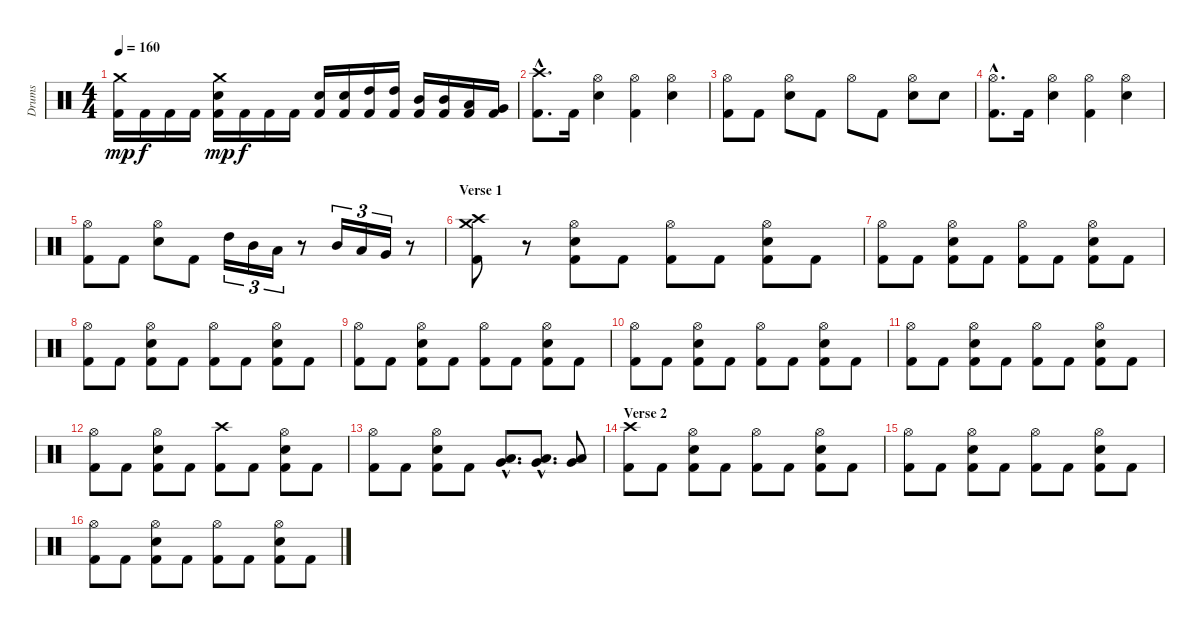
\track ("Drums" "Drums") {instrument percussion}
\staff {score}
\articulation defaults
\ts (4 4)
\tempo 160
\clef neutral
\ks c
("Crash medium (hit)" "Kick (hit) 2").16{dy mp} "Kick (hit) 2".16{dy f} "Kick (hit) 2".16 "Kick (hit) 2".16 ("Crash medium (hit)" "Electric Snare (hit)" "Kick (hit) 2").16{dy mp} "Kick (hit) 2".16{dy f} "Kick (hit) 2".16 "Kick (hit) 2".16 ("Electric Snare (hit)" "Kick (hit) 2").16 ("Electric Snare (hit)" "Kick (hit) 2").16 ("High Tom (hit)" "Kick (hit) 2").16 ("High Tom (hit)" "Kick (hit) 2").16 ("Mid Tom (hit)" "Kick (hit) 2").16 ("Mid Tom (hit)" "Kick (hit) 2").16 ("Low Tom (hit)" "Kick (hit) 2").16 ("Very Low Tom (hit)" "Kick (hit) 2").16 |
("Crash high (hit)"{hac} "Kick (hit) 2"{hac}).8{d} "Kick (hit) 2".16 ("Hi-Hat (open)" "Electric Snare (hit)").4 ("Hi-Hat (open)" "Kick (hit) 2").4 ("Hi-Hat (open)" "Electric Snare (hit)").4 |
("Hi-Hat (open)" "Kick (hit) 2").8 "Kick (hit) 2".8 ("Hi-Hat (open)" "Electric Snare (hit)").8 "Kick (hit) 2".8 "Hi-Hat (open)".8 "Kick (hit) 2".8 ("Hi-Hat (open)" "Electric Snare (hit)").8 "Electric Snare (hit)".8 |
("Hi-Hat (open)"{hac} "Kick (hit) 2"{hac}).8{d} "Kick (hit) 2".16 ("Hi-Hat (open)" "Electric Snare (hit)").4 ("Hi-Hat (open)" "Kick (hit) 2").4 ("Hi-Hat (open)" "Electric Snare (hit)").4 |
("Hi-Hat (open)" "Kick (hit) 2").8 "Kick (hit) 2".8 ("Hi-Hat (open)" "Electric Snare (hit)").8 "Kick (hit) 2".8 "High Tom (hit)".16{tu (3 2)} "Mid Tom (hit)".16{tu (3 2)} "Low Tom (hit)".16{tu (3 2)} r.8 "Mid Tom (hit)".16{tu (3 2)} "Low Tom (hit)".16{tu (3 2)} "Very Low Tom (hit)".16{tu (3 2)} r.8 |
\section ("" "Verse 1")
("Crash high (hit)" "Crash medium (hit)" "Kick (hit) 2").8 r.8 ("Hi-Hat (open)" "Electric Snare (hit)" "Kick (hit) 2").8 "Kick (hit) 2".8 ("Hi-Hat (open)" "Kick (hit) 2").8 "Kick (hit) 2".8 ("Hi-Hat (open)" "Electric Snare (hit)" "Kick (hit) 2").8 "Kick (hit) 2".8 |
("Hi-Hat (open)" "Kick (hit) 2").8 "Kick (hit) 2".8 ("Hi-Hat (open)" "Electric Snare (hit)" "Kick (hit) 2").8 "Kick (hit) 2".8 ("Hi-Hat (open)" "Kick (hit) 2").8 "Kick (hit) 2".8 ("Hi-Hat (open)" "Electric Snare (hit)" "Kick (hit) 2").8 "Kick (hit) 2".8 |
("Hi-Hat (open)" "Kick (hit) 2").8 "Kick (hit) 2".8 ("Hi-Hat (open)" "Electric Snare (hit)" "Kick (hit) 2").8 "Kick (hit) 2".8 ("Hi-Hat (open)" "Kick (hit) 2").8 "Kick (hit) 2".8 ("Hi-Hat (open)" "Electric Snare (hit)" "Kick (hit) 2").8 "Kick (hit) 2".8 |
("Hi-Hat (open)" "Kick (hit) 2").8 "Kick (hit) 2".8 ("Hi-Hat (open)" "Electric Snare (hit)" "Kick (hit) 2").8 "Kick (hit) 2".8 ("Hi-Hat (open)" "Kick (hit) 2").8 "Kick (hit) 2".8 ("Hi-Hat (open)" "Electric Snare (hit)" "Kick (hit) 2").8 "Kick (hit) 2".8 |
("Hi-Hat (open)" "Kick (hit) 2").8 "Kick (hit) 2".8 ("Hi-Hat (open)" "Electric Snare (hit)" "Kick (hit) 2").8 "Kick (hit) 2".8 ("Hi-Hat (open)" "Kick (hit) 2").8 "Kick (hit) 2".8 ("Hi-Hat (open)" "Electric Snare (hit)" "Kick (hit) 2").8 "Kick (hit) 2".8 |
("Hi-Hat (open)" "Kick (hit) 2").8 "Kick (hit) 2".8 ("Hi-Hat (open)" "Electric Snare (hit)" "Kick (hit) 2").8 "Kick (hit) 2".8 ("Hi-Hat (open)" "Kick (hit) 2").8 "Kick (hit) 2".8 ("Hi-Hat (open)" "Electric Snare (hit)" "Kick (hit) 2").8 "Kick (hit) 2".8 |
("Hi-Hat (open)" "Kick (hit) 2").8 "Kick (hit) 2".8 ("Hi-Hat (open)" "Electric Snare (hit)" "Kick (hit) 2").8 "Kick (hit) 2".8 ("Crash high (hit)" "Kick (hit) 2").8 "Kick (hit) 2".8 ("Hi-Hat (open)" "Electric Snare (hit)" "Kick (hit) 2").8 "Kick (hit) 2".8 |
("Hi-Hat (open)" "Kick (hit) 2").8 "Kick (hit) 2".8 ("Hi-Hat (open)" "Electric Snare (hit)" "Kick (hit) 2").8 "Kick (hit) 2".8 ("Low Tom (hit)"{hac} "Very Low Tom (hit)"{hac}).8{d} ("Low Tom (hit)"{hac} "Very Low Tom (hit)"{hac}).8{d} ("Low Tom (hit)" "Very Low Tom (hit)").8 |
\section ("" "Verse 2")
("Crash high (hit)" "Kick (hit) 2").8 "Kick (hit) 2".8 ("Hi-Hat (open)" "Electric Snare (hit)" "Kick (hit) 2").8 "Kick (hit) 2".8 ("Hi-Hat (open)" "Kick (hit) 2").8 "Kick (hit) 2".8 ("Hi-Hat (open)" "Electric Snare (hit)" "Kick (hit) 2").8 "Kick (hit) 2".8 |
("Hi-Hat (open)" "Kick (hit) 2").8 "Kick (hit) 2".8 ("Hi-Hat (open)" "Electric Snare (hit)" "Kick (hit) 2").8 "Kick (hit) 2".8 ("Hi-Hat (open)" "Kick (hit) 2").8 "Kick (hit) 2".8 ("Hi-Hat (open)" "Electric Snare (hit)" "Kick (hit) 2").8 "Kick (hit) 2".8 |
("Hi-Hat (open)" "Kick (hit) 2").8 "Kick (hit) 2".8 ("Hi-Hat (open)" "Electric Snare (hit)" "Kick (hit) 2").8 "Kick (hit) 2".8 ("Hi-Hat (open)" "Kick (hit) 2").8 "Kick (hit) 2".8 ("Hi-Hat (open)" "Electric Snare (hit)" "Kick (hit) 2").8 "Kick (hit) 2".8
